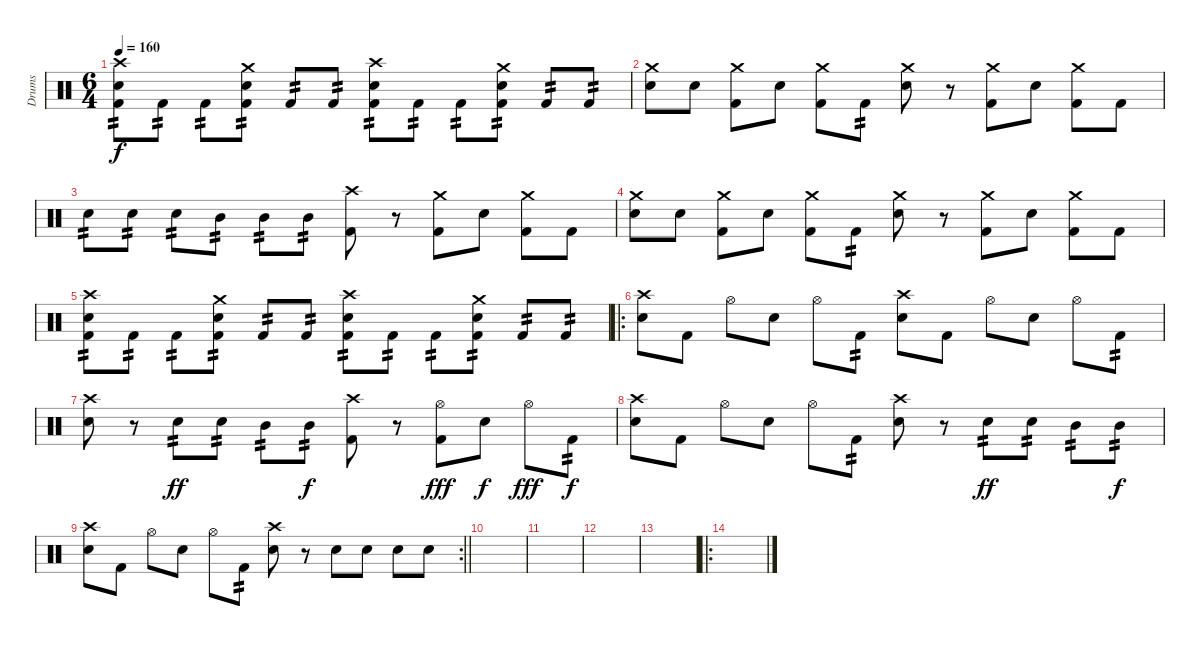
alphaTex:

\track ("Drums" "Drums") {instrument percussion}
\staff {score}
\articulation defaults
\ts (6 4)
\tempo 160
\clef neutral
\ks c
("Crash high (hit)" "Electric Snare (hit)" "Kick (hit) 2").8{tp 2 dy f} "Kick (hit) 2".8{tp 2} "Kick (hit) 2".8{tp 2} ("Crash medium (hit)" "Electric Snare (hit)" "Kick (hit) 2").8{tp 2} "Kick (hit) 2".8{tp 2} "Kick (hit) 2".8{tp 2} ("Crash high (hit)" "Electric Snare (hit)" "Kick (hit) 2").8{tp 2} "Kick (hit) 2".8{tp 2} "Kick (hit) 2".8{tp 2} ("Crash medium (hit)" "Electric Snare (hit)" "Kick (hit) 2").8{tp 2} "Kick (hit) 2".8{tp 2} "Kick (hit) 2".8{tp 2} |
("Crash medium (hit)" "Electric Snare (hit)").8 "Electric Snare (hit)".8 ("Crash medium (hit)" "Kick (hit) 2").8 "Electric Snare (hit)".8 ("Crash medium (hit)" "Kick (hit) 2").8 "Kick (hit) 2".8{tp 2} ("Crash medium (hit)" "Electric Snare (hit)").8 r.8 ("Crash medium (hit)" "Kick (hit) 2").8 "Electric Snare (hit)".8 ("Crash medium (hit)" "Kick (hit) 2").8 "Kick (hit) 2".8 |
"Electric Snare (hit)".8{tp 2} "Electric Snare (hit)".8{tp 2} "Electric Snare (hit)".8{tp 2} "Mid Tom (hit)".8{tp 2} "Mid Tom (hit)".8{tp 2} "Mid Tom (hit)".8{tp 2} ("Crash high (hit)" "Kick (hit) 2").8 r.8 ("Crash medium (hit)" "Kick (hit) 2").8 "Electric Snare (hit)".8 ("Crash medium (hit)" "Kick (hit) 2").8 "Kick (hit) 2".8 |
("Crash medium (hit)" "Electric Snare (hit)").8 "Electric Snare (hit)".8 ("Crash medium (hit)" "Kick (hit) 2").8 "Electric Snare (hit)".8 ("Crash medium (hit)" "Kick (hit) 2").8 "Kick (hit) 2".8{tp 2} ("Crash medium (hit)" "Electric Snare (hit)").8 r.8 ("Crash medium (hit)" "Kick (hit) 2").8 "Electric Snare (hit)".8 ("Crash medium (hit)" "Kick (hit) 2").8 "Kick (hit) 2".8 |
("Crash high (hit)" "Electric Snare (hit)" "Kick (hit) 2").8{tp 2} "Kick (hit) 2".8{tp 2} "Kick (hit) 2".8{tp 2} ("Crash medium (hit)" "Electric Snare (hit)" "Kick (hit) 2").8{tp 2} "Kick (hit) 2".8{tp 2} "Kick (hit) 2".8{tp 2} ("Crash high (hit)" "Electric Snare (hit)" "Kick (hit) 2").8{tp 2} "Kick (hit) 2".8{tp 2} "Kick (hit) 2".8{tp 2} ("Crash medium (hit)" "Electric Snare (hit)" "Kick (hit) 2").8{tp 2} "Kick (hit) 2".8{tp 2} "Kick (hit) 2".8{tp 2} |
\ro
("Crash high (hit)" "Electric Snare (hit)").8 "Kick (hit) 2".8 "Hi-Hat (open)".8 "Electric Snare (hit)".8 "Hi-Hat (open)".8 "Kick (hit) 2".8{tp 2} ("Crash high (hit)" "Electric Snare (hit)").8 "Kick (hit) 2".8 "Hi-Hat (open)".8 "Electric Snare (hit)".8 "Hi-Hat (open)".8 "Kick (hit) 2".8{tp 2} |
("Crash high (hit)" "Electric Snare (hit)").8 r.8 "Electric Snare (hit)".8{tp 2 dy ff} "Electric Snare (hit)".8{tp 2} "Mid Tom (hit)".8{tp 2} "Mid Tom (hit)".8{tp 2 dy f} ("Crash high (hit)" "Kick (hit) 2").8 r.8 ("Hi-Hat (open)" "Kick (hit) 2").8{dy fff} "Electric Snare (hit)".8{dy f} "Hi-Hat (open)".8{dy fff} "Kick (hit) 2".8{tp 2 dy f} |
("Crash high (hit)" "Electric Snare (hit)").8 "Kick (hit) 2".8 "Hi-Hat (open)".8 "Electric Snare (hit)".8 "Hi-Hat (open)".8 "Kick (hit) 2".8{tp 2} ("Crash high (hit)" "Electric Snare (hit)").8 r.8 "Electric Snare (hit)".8{tp 2 dy ff} "Electric Snare (hit)".8{tp 2} "Mid Tom (hit)".8{tp 2} "Mid Tom (hit)".8{tp 2 dy f} |
\rc 2
\barLineRight lightlight
("Crash high (hit)" "Electric Snare (hit)").8 "Kick (hit) 2".8 "Hi-Hat (open)".8 "Electric Snare (hit)".8 "Hi-Hat (open)".8 "Kick (hit) 2".8{tp 2} ("Crash high (hit)" "Electric Snare (hit)").8 r.8 "Electric Snare (hit)".8 "Electric Snare (hit)".8 "Electric Snare (hit)".8 "Electric Snare (hit)".8 |
|
|
|
|
\ro
